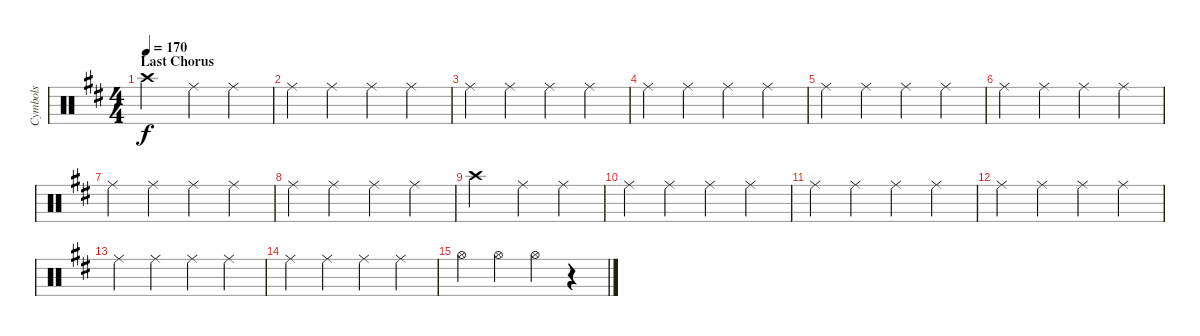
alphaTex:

\track ("Cymbols" "Cymbols") {instrument percussion}
\staff {score}
\articulation defaults
\ts (4 4)
\section ("" "Last Chorus")
\tempo 170
\clef neutral
\ks d "Crash high (hit)".2{dy f} "Ride (middle)".4 "Ride (middle)".4
|
"Ride (middle)".4 "Ride (middle)".4 "Ride (middle)".4 "Ride (middle)".4 |
"Ride (middle)".4 "Ride (middle)".4 "Ride (middle)".4 "Ride (middle)".4 |
"Ride (middle)".4 "Ride (middle)".4 "Ride (middle)".4 "Ride (middle)".4 |
"Ride (middle)".4 "Ride (middle)".4 "Ride (middle)".4 "Ride (middle)".4 |
"Ride (middle)".4 "Ride (middle)".4 "Ride (middle)".4 "Ride (middle)".4 |
"Ride (middle)".4 "Ride (middle)".4 "Ride (middle)".4 "Ride (middle)".4 |
"Ride (middle)".4 "Ride (middle)".4 "Ride (middle)".4 "Ride (middle)".4 |
"Crash high (hit)".2 "Ride (middle)".4 "Ride (middle)".4 |
"Ride (middle)".4 "Ride (middle)".4 "Ride (middle)".4 "Ride (middle)".4 |
"Ride (middle)".4 "Ride (middle)".4 "Ride (middle)".4 "Ride (middle)".4 |
"Ride (middle)".4 "Ride (middle)".4 "Ride (middle)".4 "Ride (middle)".4 |
"Ride (middle)".4 "Ride (middle)".4 "Ride (middle)".4 "Ride (middle)".4 |
"Ride (middle)".4 "Ride (middle)".4 "Ride (middle)".4 "Ride (middle)".4 |
"Hi-Hat (open)".4 "Hi-Hat (open)".4 "Hi-Hat (open)".4 r.4
